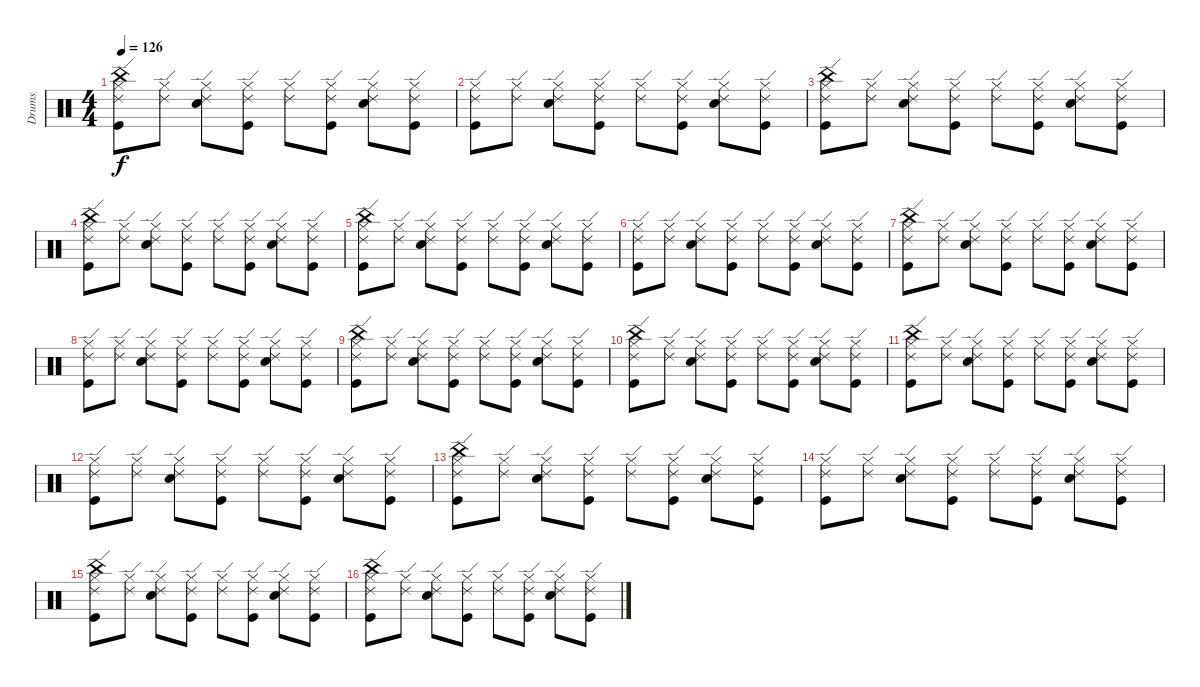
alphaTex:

\track ("Drums" "Drums") {instrument percussion}
\staff {score}
\articulation defaults
\ts (4 4)
\tempo 126
\clef neutral
\ks c
("Hi-Hat (closed)" "China (hit)" "Ride (edge) 2" "Kick (hit)").8{dy f} ("Hi-Hat (closed)" "Ride (edge) 2").8 ("Hi-Hat (closed)" "Ride (edge) 2" "Electric Snare (hit)").8 ("Hi-Hat (closed)" "Ride (edge) 2" "Kick (hit)").8 ("Hi-Hat (closed)" "Ride (edge) 2").8 ("Hi-Hat (closed)" "Ride (edge) 2" "Kick (hit)").8 ("Hi-Hat (closed)" "Ride (edge) 2" "Electric Snare (hit)").8 ("Hi-Hat (closed)" "Ride (edge) 2" "Kick (hit)").8 |
("Hi-Hat (closed)" "Ride (edge) 2" "Kick (hit)").8 ("Hi-Hat (closed)" "Ride (edge) 2").8 ("Hi-Hat (closed)" "Ride (edge) 2" "Electric Snare (hit)").8 ("Hi-Hat (closed)" "Ride (edge) 2" "Kick (hit)").8 ("Hi-Hat (closed)" "Ride (edge) 2").8 ("Hi-Hat (closed)" "Ride (edge) 2" "Kick (hit)").8 ("Hi-Hat (closed)" "Ride (edge) 2" "Electric Snare (hit)").8 ("Hi-Hat (closed)" "Ride (edge) 2" "Kick (hit)").8 |
("Hi-Hat (closed)" "China (hit)" "Ride (edge) 2" "Kick (hit)").8 ("Hi-Hat (closed)" "Ride (edge) 2").8 ("Hi-Hat (closed)" "Ride (edge) 2" "Electric Snare (hit)").8 ("Hi-Hat (closed)" "Ride (edge) 2" "Kick (hit)").8 ("Hi-Hat (closed)" "Ride (edge) 2").8 ("Hi-Hat (closed)" "Ride (edge) 2" "Kick (hit)").8 ("Hi-Hat (closed)" "Ride (edge) 2" "Electric Snare (hit)").8 ("Hi-Hat (closed)" "Ride (edge) 2" "Kick (hit)").8 |
("Hi-Hat (closed)" "China (hit)" "Ride (edge) 2" "Kick (hit)").8 ("Hi-Hat (closed)" "Ride (edge) 2").8 ("Hi-Hat (closed)" "Ride (edge) 2" "Electric Snare (hit)").8 ("Hi-Hat (closed)" "Ride (edge) 2" "Kick (hit)").8 ("Hi-Hat (closed)" "Ride (edge) 2").8 ("Hi-Hat (closed)" "Ride (edge) 2" "Kick (hit)").8 ("Hi-Hat (closed)" "Ride (edge) 2" "Electric Snare (hit)").8 ("Hi-Hat (closed)" "Ride (edge) 2" "Kick (hit)").8 |
("Hi-Hat (closed)" "China (hit)" "Ride (edge) 2" "Kick (hit)").8 ("Hi-Hat (closed)" "Ride (edge) 2").8 ("Hi-Hat (closed)" "Ride (edge) 2" "Electric Snare (hit)").8 ("Hi-Hat (closed)" "Ride (edge) 2" "Kick (hit)").8 ("Hi-Hat (closed)" "Ride (edge) 2").8 ("Hi-Hat (closed)" "Ride (edge) 2" "Kick (hit)").8 ("Hi-Hat (closed)" "Ride (edge) 2" "Electric Snare (hit)").8 ("Hi-Hat (closed)" "Ride (edge) 2" "Kick (hit)").8 |
("Hi-Hat (closed)" "Ride (edge) 2" "Kick (hit)").8 ("Hi-Hat (closed)" "Ride (edge) 2").8 ("Hi-Hat (closed)" "Ride (edge) 2" "Electric Snare (hit)").8 ("Hi-Hat (closed)" "Ride (edge) 2" "Kick (hit)").8 ("Hi-Hat (closed)" "Ride (edge) 2").8 ("Hi-Hat (closed)" "Ride (edge) 2" "Kick (hit)").8 ("Hi-Hat (closed)" "Ride (edge) 2" "Electric Snare (hit)").8 ("Hi-Hat (closed)" "Ride (edge) 2" "Kick (hit)").8 |
("Hi-Hat (closed)" "China (hit)" "Ride (edge) 2" "Kick (hit)").8 ("Hi-Hat (closed)" "Ride (edge) 2").8 ("Hi-Hat (closed)" "Ride (edge) 2" "Electric Snare (hit)").8 ("Hi-Hat (closed)" "Ride (edge) 2" "Kick (hit)").8 ("Hi-Hat (closed)" "Ride (edge) 2").8 ("Hi-Hat (closed)" "Ride (edge) 2" "Kick (hit)").8 ("Hi-Hat (closed)" "Ride (edge) 2" "Electric Snare (hit)").8 ("Hi-Hat (closed)" "Ride (edge) 2" "Kick (hit)").8 |
("Hi-Hat (closed)" "Ride (edge) 2" "Kick (hit)").8 ("Hi-Hat (closed)" "Ride (edge) 2").8 ("Hi-Hat (closed)" "Ride (edge) 2" "Electric Snare (hit)").8 ("Hi-Hat (closed)" "Ride (edge) 2" "Kick (hit)").8 ("Hi-Hat (closed)" "Ride (edge) 2").8 ("Hi-Hat (closed)" "Ride (edge) 2" "Kick (hit)").8 ("Hi-Hat (closed)" "Ride (edge) 2" "Electric Snare (hit)").8 ("Hi-Hat (closed)" "Ride (edge) 2" "Kick (hit)").8 |
("Hi-Hat (closed)" "China (hit)" "Ride (edge) 2" "Kick (hit)").8 ("Hi-Hat (closed)" "Ride (edge) 2").8 ("Hi-Hat (closed)" "Ride (edge) 2" "Electric Snare (hit)").8 ("Hi-Hat (closed)" "Ride (edge) 2" "Kick (hit)").8 ("Hi-Hat (closed)" "Ride (edge) 2").8 ("Hi-Hat (closed)" "Ride (edge) 2" "Kick (hit)").8 ("Hi-Hat (closed)" "Ride (edge) 2" "Electric Snare (hit)").8 ("Hi-Hat (closed)" "Ride (edge) 2" "Kick (hit)").8 |
("Hi-Hat (closed)" "China (hit)" "Ride (edge) 2" "Kick (hit)").8 ("Hi-Hat (closed)" "Ride (edge) 2").8 ("Hi-Hat (closed)" "Ride (edge) 2" "Electric Snare (hit)").8 ("Hi-Hat (closed)" "Ride (edge) 2" "Kick (hit)").8 ("Hi-Hat (closed)" "Ride (edge) 2").8 ("Hi-Hat (closed)" "Ride (edge) 2" "Kick (hit)").8 ("Hi-Hat (closed)" "Ride (edge) 2" "Electric Snare (hit)").8 ("Hi-Hat (closed)" "Ride (edge) 2" "Kick (hit)").8 |
("Hi-Hat (closed)" "China (hit)" "Ride (edge) 2" "Kick (hit)").8 ("Hi-Hat (closed)" "Ride (edge) 2").8 ("Hi-Hat (closed)" "Ride (edge) 2" "Electric Snare (hit)").8 ("Hi-Hat (closed)" "Ride (edge) 2" "Kick (hit)").8 ("Hi-Hat (closed)" "Ride (edge) 2").8 ("Hi-Hat (closed)" "Ride (edge) 2" "Kick (hit)").8 ("Hi-Hat (closed)" "Ride (edge) 2" "Electric Snare (hit)").8 ("Hi-Hat (closed)" "Ride (edge) 2" "Kick (hit)").8 |
("Hi-Hat (closed)" "Ride (edge) 2" "Kick (hit)").8 ("Hi-Hat (closed)" "Ride (edge) 2").8 ("Hi-Hat (closed)" "Ride (edge) 2" "Electric Snare (hit)").8 ("Hi-Hat (closed)" "Ride (edge) 2" "Kick (hit)").8 ("Hi-Hat (closed)" "Ride (edge) 2").8 ("Hi-Hat (closed)" "Ride (edge) 2" "Kick (hit)").8 ("Hi-Hat (closed)" "Ride (edge) 2" "Electric Snare (hit)").8 ("Hi-Hat (closed)" "Ride (edge) 2" "Kick (hit)").8 |
("Hi-Hat (closed)" "China (hit)" "Ride (edge) 2" "Kick (hit)").8 ("Hi-Hat (closed)" "Ride (edge) 2").8 ("Hi-Hat (closed)" "Ride (edge) 2" "Electric Snare (hit)").8 ("Hi-Hat (closed)" "Ride (edge) 2" "Kick (hit)").8 ("Hi-Hat (closed)" "Ride (edge) 2").8 ("Hi-Hat (closed)" "Ride (edge) 2" "Kick (hit)").8 ("Hi-Hat (closed)" "Ride (edge) 2" "Electric Snare (hit)").8 ("Hi-Hat (closed)" "Ride (edge) 2" "Kick (hit)").8 |
("Hi-Hat (closed)" "Ride (edge) 2" "Kick (hit)").8 ("Hi-Hat (closed)" "Ride (edge) 2").8 ("Hi-Hat (closed)" "Ride (edge) 2" "Electric Snare (hit)").8 ("Hi-Hat (closed)" "Ride (edge) 2" "Kick (hit)").8 ("Hi-Hat (closed)" "Ride (edge) 2").8 ("Hi-Hat (closed)" "Ride (edge) 2" "Kick (hit)").8 ("Hi-Hat (closed)" "Ride (edge) 2" "Electric Snare (hit)").8 ("Hi-Hat (closed)" "Ride (edge) 2" "Kick (hit)").8 |
("Hi-Hat (closed)" "China (hit)" "Ride (edge) 2" "Kick (hit)").8 ("Hi-Hat (closed)" "Ride (edge) 2").8 ("Hi-Hat (closed)" "Ride (edge) 2" "Electric Snare (hit)").8 ("Hi-Hat (closed)" "Ride (edge) 2" "Kick (hit)").8 ("Hi-Hat (closed)" "Ride (edge) 2").8 ("Hi-Hat (closed)" "Ride (edge) 2" "Kick (hit)").8 ("Hi-Hat (closed)" "Ride (edge) 2" "Electric Snare (hit)").8 ("Hi-Hat (closed)" "Ride (edge) 2" "Kick (hit)").8 |
("Hi-Hat (closed)" "China (hit)" "Ride (edge) 2" "Kick (hit)").8 ("Hi-Hat (closed)" "Ride (edge) 2").8 ("Hi-Hat (closed)" "Ride (edge) 2" "Electric Snare (hit)").8 ("Hi-Hat (closed)" "Ride (edge) 2" "Kick (hit)").8 ("Hi-Hat (closed)" "Ride (edge) 2").8 ("Hi-Hat (closed)" "Ride (edge) 2" "Kick (hit)").8 ("Hi-Hat (closed)" "Ride (edge) 2" "Electric Snare (hit)").8 ("Hi-Hat (closed)" "Ride (edge) 2" "Kick (hit)").8
